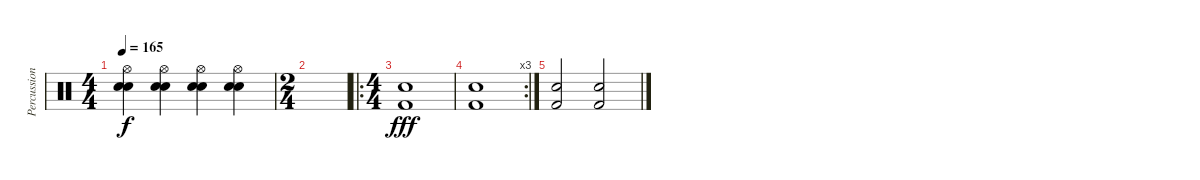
\track ("Percussion" "Percussion") {instrument percussion}
\staff {score}
\articulation defaults
\ts (4 4)
\tempo 165
\clef neutral
\ks c
("Hi-Hat (open)" "Electric Snare (hit)" "Snare (hit) 2").4{dy f} ("Hi-Hat (open)" "Electric Snare (hit)" "Snare (hit) 2").4 ("Hi-Hat (open)" "Electric Snare (hit)" "Snare (hit) 2").4 ("Hi-Hat (open)" "Electric Snare (hit)" "Snare (hit) 2").4 |
\ts (2 4)
|
\ro
\ts (4 4)
("Snare (hit) 2" "Kick (hit) 2").1{dy fff} |
\rc 3
("Snare (hit) 2" "Kick (hit) 2").1 |
("Snare (hit) 2" "Kick (hit) 2").2 ("Snare (hit) 2" "Kick (hit) 2").2
